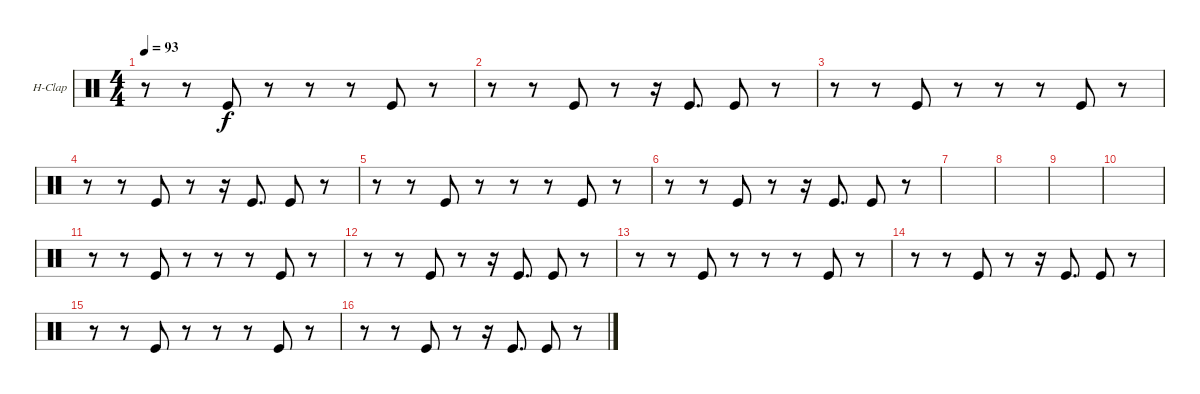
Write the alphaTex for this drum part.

\defaultSystemsLayout 4
\bracketExtendMode groupsimilarinstruments
\firstSystemTrackNameOrientation horizontal
\otherSystemsTrackNameOrientation horizontal
\track ("Hand Clap" "H-Clap") {instrument percussion}
\staff {score}
\articulation defaults
\ts (4 4)
\tempo 93
\clef neutral
\ks c
r.8{dy f} r.8 "Kick (hit)".8 r.8 r.8 r.8 "Kick (hit)".8 r.8 |
r.8 r.8 "Kick (hit)".8 r.8 r.16 "Kick (hit)".8{d} "Kick (hit)".8 r.8 |
r.8 r.8 "Kick (hit)".8 r.8 r.8 r.8 "Kick (hit)".8 r.8 |
r.8 r.8 "Kick (hit)".8 r.8 r.16 "Kick (hit)".8{d} "Kick (hit)".8 r.8 |
r.8 r.8 "Kick (hit)".8 r.8 r.8 r.8 "Kick (hit)".8 r.8 |
r.8 r.8 "Kick (hit)".8 r.8 r.16 "Kick (hit)".8{d} "Kick (hit)".8 r.8 |
|
|
|
|
r.8 r.8 "Kick (hit)".8 r.8 r.8 r.8 "Kick (hit)".8 r.8 |
r.8 r.8 "Kick (hit)".8 r.8 r.16 "Kick (hit)".8{d} "Kick (hit)".8 r.8 |
r.8 r.8 "Kick (hit)".8 r.8 r.8 r.8 "Kick (hit)".8 r.8 |
r.8 r.8 "Kick (hit)".8 r.8 r.16 "Kick (hit)".8{d} "Kick (hit)".8 r.8 |
r.8 r.8 "Kick (hit)".8 r.8 r.8 r.8 "Kick (hit)".8 r.8 |
r.8 r.8 "Kick (hit)".8 r.8 r.16 "Kick (hit)".8{d} "Kick (hit)".8 r.8
